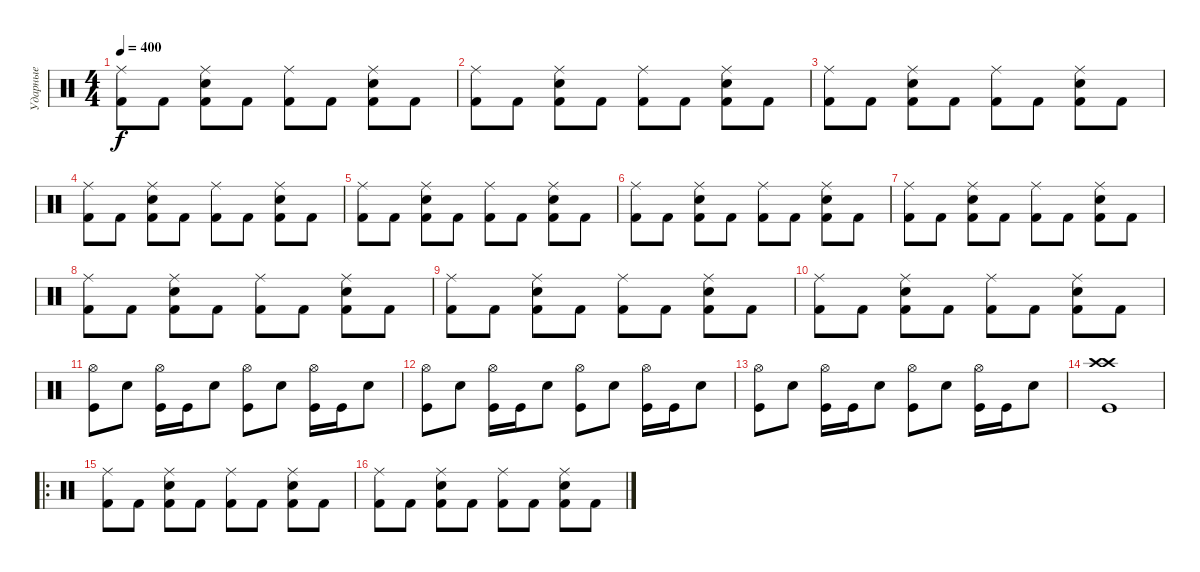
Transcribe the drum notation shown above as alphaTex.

\track ("Ударные" "Ударные") {instrument percussion}
\staff {score}
\articulation defaults
\ts (4 4)
\tempo 400
\clef neutral
\ks c
("Ride (middle)" "Kick (hit) 2").8{dy f} "Kick (hit) 2".8 ("Ride (middle)" "Snare (hit) 2" "Kick (hit) 2").8 "Kick (hit) 2".8 ("Ride (middle)" "Kick (hit) 2").8 "Kick (hit) 2".8 ("Ride (middle)" "Snare (hit) 2" "Kick (hit) 2").8 "Kick (hit) 2".8 |
("Ride (middle)" "Kick (hit) 2").8 "Kick (hit) 2".8 ("Ride (middle)" "Snare (hit) 2" "Kick (hit) 2").8 "Kick (hit) 2".8 ("Ride (middle)" "Kick (hit) 2").8 "Kick (hit) 2".8 ("Ride (middle)" "Snare (hit) 2" "Kick (hit) 2").8 "Kick (hit) 2".8 |
("Ride (middle)" "Kick (hit) 2").8 "Kick (hit) 2".8 ("Ride (middle)" "Snare (hit) 2" "Kick (hit) 2").8 "Kick (hit) 2".8 ("Ride (middle)" "Kick (hit) 2").8 "Kick (hit) 2".8 ("Ride (middle)" "Snare (hit) 2" "Kick (hit) 2").8 "Kick (hit) 2".8 |
("Ride (middle)" "Kick (hit) 2").8 "Kick (hit) 2".8 ("Ride (middle)" "Snare (hit) 2" "Kick (hit) 2").8 "Kick (hit) 2".8 ("Ride (middle)" "Kick (hit) 2").8 "Kick (hit) 2".8 ("Ride (middle)" "Snare (hit) 2" "Kick (hit) 2").8 "Kick (hit) 2".8 |
("Ride (middle)" "Kick (hit) 2").8 "Kick (hit) 2".8 ("Ride (middle)" "Snare (hit) 2" "Kick (hit) 2").8 "Kick (hit) 2".8 ("Ride (middle)" "Kick (hit) 2").8 "Kick (hit) 2".8 ("Ride (middle)" "Snare (hit) 2" "Kick (hit) 2").8 "Kick (hit) 2".8 |
("Ride (middle)" "Kick (hit) 2").8 "Kick (hit) 2".8 ("Ride (middle)" "Snare (hit) 2" "Kick (hit) 2").8 "Kick (hit) 2".8 ("Ride (middle)" "Kick (hit) 2").8 "Kick (hit) 2".8 ("Ride (middle)" "Snare (hit) 2" "Kick (hit) 2").8 "Kick (hit) 2".8 |
("Ride (middle)" "Kick (hit) 2").8 "Kick (hit) 2".8 ("Ride (middle)" "Snare (hit) 2" "Kick (hit) 2").8 "Kick (hit) 2".8 ("Ride (middle)" "Kick (hit) 2").8 "Kick (hit) 2".8 ("Ride (middle)" "Snare (hit) 2" "Kick (hit) 2").8 "Kick (hit) 2".8 |
("Ride (middle)" "Kick (hit) 2").8 "Kick (hit) 2".8 ("Ride (middle)" "Snare (hit) 2" "Kick (hit) 2").8 "Kick (hit) 2".8 ("Ride (middle)" "Kick (hit) 2").8 "Kick (hit) 2".8 ("Ride (middle)" "Snare (hit) 2" "Kick (hit) 2").8 "Kick (hit) 2".8 |
("Ride (middle)" "Kick (hit) 2").8 "Kick (hit) 2".8 ("Ride (middle)" "Snare (hit) 2" "Kick (hit) 2").8 "Kick (hit) 2".8 ("Ride (middle)" "Kick (hit) 2").8 "Kick (hit) 2".8 ("Ride (middle)" "Snare (hit) 2" "Kick (hit) 2").8 "Kick (hit) 2".8 |
("Ride (middle)" "Kick (hit) 2").8 "Kick (hit) 2".8 ("Ride (middle)" "Snare (hit) 2" "Kick (hit) 2").8 "Kick (hit) 2".8 ("Ride (middle)" "Kick (hit) 2").8 "Kick (hit) 2".8 ("Ride (middle)" "Snare (hit) 2" "Kick (hit) 2").8 "Kick (hit) 2".8 |
("Hi-Hat (open)" "Kick (hit)").8 "Snare (hit) 2".8 ("Hi-Hat (open)" "Kick (hit)").16 "Kick (hit)".16 "Snare (hit) 2".8 ("Hi-Hat (open)" "Kick (hit)").8 "Snare (hit) 2".8 ("Hi-Hat (open)" "Kick (hit)").16 "Kick (hit)".16 "Snare (hit) 2".8 |
("Hi-Hat (open)" "Kick (hit)").8 "Snare (hit) 2".8 ("Hi-Hat (open)" "Kick (hit)").16 "Kick (hit)".16 "Snare (hit) 2".8 ("Hi-Hat (open)" "Kick (hit)").8 "Snare (hit) 2".8 ("Hi-Hat (open)" "Kick (hit)").16 "Kick (hit)".16 "Snare (hit) 2".8 |
("Hi-Hat (open)" "Kick (hit)").8 "Snare (hit) 2".8 ("Hi-Hat (open)" "Kick (hit)").16 "Kick (hit)".16 "Snare (hit) 2".8 ("Hi-Hat (open)" "Kick (hit)").8 "Snare (hit) 2".8 ("Hi-Hat (open)" "Kick (hit)").16 "Kick (hit)".16 "Snare (hit) 2".8 |
("Crash high (hit)" "Crash high (hit)" "Kick (hit)").1 |
\ro
("Ride (middle)" "Kick (hit) 2").8 "Kick (hit) 2".8 ("Ride (middle)" "Snare (hit) 2" "Kick (hit) 2").8 "Kick (hit) 2".8 ("Ride (middle)" "Kick (hit) 2").8 "Kick (hit) 2".8 ("Ride (middle)" "Snare (hit) 2" "Kick (hit) 2").8 "Kick (hit) 2".8 |
("Ride (middle)" "Kick (hit) 2").8 "Kick (hit) 2".8 ("Ride (middle)" "Snare (hit) 2" "Kick (hit) 2").8 "Kick (hit) 2".8 ("Ride (middle)" "Kick (hit) 2").8 "Kick (hit) 2".8 ("Ride (middle)" "Snare (hit) 2" "Kick (hit) 2").8 "Kick (hit) 2".8
